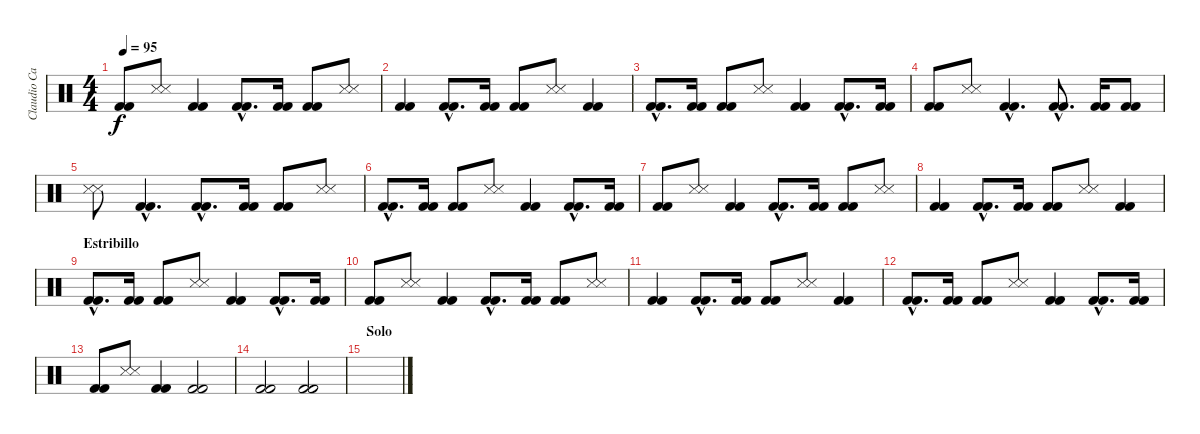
\track ("Claudio Cardaci (Percusión)" "Claudio Ca") {instrument percussion}
\staff {score}
\articulation defaults
\ts (4 4)
\tempo 95
\clef neutral
\ks c
("Kick (hit) 2" "Kick (hit) 2").8{dy f} ("Snare (side stick) 3" "Snare (side stick) 3").8 ("Kick (hit) 2" "Kick (hit) 2").4 ("Kick (hit) 2"{hac} "Kick (hit) 2"{hac}).8{d} ("Kick (hit) 2" "Kick (hit) 2").16 ("Kick (hit) 2" "Kick (hit) 2").8 ("Snare (side stick) 3" "Snare (side stick) 3").8 |
("Kick (hit) 2" "Kick (hit) 2").4 ("Kick (hit) 2"{hac} "Kick (hit) 2"{hac}).8{d} ("Kick (hit) 2" "Kick (hit) 2").16 ("Kick (hit) 2" "Kick (hit) 2").8 ("Snare (side stick) 3" "Snare (side stick) 3").8 ("Kick (hit) 2" "Kick (hit) 2").4 |
("Kick (hit) 2"{hac} "Kick (hit) 2"{hac}).8{d} ("Kick (hit) 2" "Kick (hit) 2").16 ("Kick (hit) 2" "Kick (hit) 2").8 ("Snare (side stick) 3" "Snare (side stick) 3").8 ("Kick (hit) 2" "Kick (hit) 2").4 ("Kick (hit) 2"{hac} "Kick (hit) 2"{hac}).8{d} ("Kick (hit) 2" "Kick (hit) 2").16 |
("Kick (hit) 2" "Kick (hit) 2").8 ("Snare (side stick) 3" "Snare (side stick) 3").8 ("Kick (hit) 2"{hac} "Kick (hit) 2"{hac}).4{d} ("Kick (hit) 2"{hac} "Kick (hit) 2"{hac}).8{d} ("Kick (hit) 2" "Kick (hit) 2").16 ("Kick (hit) 2" "Kick (hit) 2").8 |
("Snare (side stick) 3" "Snare (side stick) 3").8 ("Kick (hit) 2"{hac} "Kick (hit) 2"{hac}).4{d} ("Kick (hit) 2"{hac} "Kick (hit) 2"{hac}).8{d} ("Kick (hit) 2" "Kick (hit) 2").16 ("Kick (hit) 2" "Kick (hit) 2").8 ("Snare (side stick) 3" "Snare (side stick) 3").8 |
("Kick (hit) 2"{hac} "Kick (hit) 2"{hac}).8{d} ("Kick (hit) 2" "Kick (hit) 2").16 ("Kick (hit) 2" "Kick (hit) 2").8 ("Snare (side stick) 3" "Snare (side stick) 3").8 ("Kick (hit) 2" "Kick (hit) 2").4 ("Kick (hit) 2"{hac} "Kick (hit) 2"{hac}).8{d} ("Kick (hit) 2" "Kick (hit) 2").16 |
("Kick (hit) 2" "Kick (hit) 2").8 ("Snare (side stick) 3" "Snare (side stick) 3").8 ("Kick (hit) 2" "Kick (hit) 2").4 ("Kick (hit) 2"{hac} "Kick (hit) 2"{hac}).8{d} ("Kick (hit) 2" "Kick (hit) 2").16 ("Kick (hit) 2" "Kick (hit) 2").8 ("Snare (side stick) 3" "Snare (side stick) 3").8 |
("Kick (hit) 2" "Kick (hit) 2").4 ("Kick (hit) 2"{hac} "Kick (hit) 2"{hac}).8{d} ("Kick (hit) 2" "Kick (hit) 2").16 ("Kick (hit) 2" "Kick (hit) 2").8 ("Snare (side stick) 3" "Snare (side stick) 3").8 ("Kick (hit) 2" "Kick (hit) 2").4 |
\section ("" "Estribillo")
("Kick (hit) 2"{hac} "Kick (hit) 2"{hac}).8{d} ("Kick (hit) 2" "Kick (hit) 2").16 ("Kick (hit) 2" "Kick (hit) 2").8 ("Snare (side stick) 3" "Snare (side stick) 3").8 ("Kick (hit) 2" "Kick (hit) 2").4 ("Kick (hit) 2"{hac} "Kick (hit) 2"{hac}).8{d} ("Kick (hit) 2" "Kick (hit) 2").16 |
("Kick (hit) 2" "Kick (hit) 2").8 ("Snare (side stick) 3" "Snare (side stick) 3").8 ("Kick (hit) 2" "Kick (hit) 2").4 ("Kick (hit) 2"{hac} "Kick (hit) 2"{hac}).8{d} ("Kick (hit) 2" "Kick (hit) 2").16 ("Kick (hit) 2" "Kick (hit) 2").8 ("Snare (side stick) 3" "Snare (side stick) 3").8 |
("Kick (hit) 2" "Kick (hit) 2").4 ("Kick (hit) 2"{hac} "Kick (hit) 2"{hac}).8{d} ("Kick (hit) 2" "Kick (hit) 2").16 ("Kick (hit) 2" "Kick (hit) 2").8 ("Snare (side stick) 3" "Snare (side stick) 3").8 ("Kick (hit) 2" "Kick (hit) 2").4 |
("Kick (hit) 2"{hac} "Kick (hit) 2"{hac}).8{d} ("Kick (hit) 2" "Kick (hit) 2").16 ("Kick (hit) 2" "Kick (hit) 2").8 ("Snare (side stick) 3" "Snare (side stick) 3").8 ("Kick (hit) 2" "Kick (hit) 2").4 ("Kick (hit) 2"{hac} "Kick (hit) 2"{hac}).8{d} ("Kick (hit) 2" "Kick (hit) 2").16 |
("Kick (hit) 2" "Kick (hit) 2").8 ("Snare (side stick) 3" "Snare (side stick) 3").8 ("Kick (hit) 2" "Kick (hit) 2").4 ("Kick (hit) 2" "Kick (hit) 2").2 |
("Kick (hit) 2" "Kick (hit) 2").2 ("Kick (hit) 2" "Kick (hit) 2").2 |
\section ("" "Solo")
